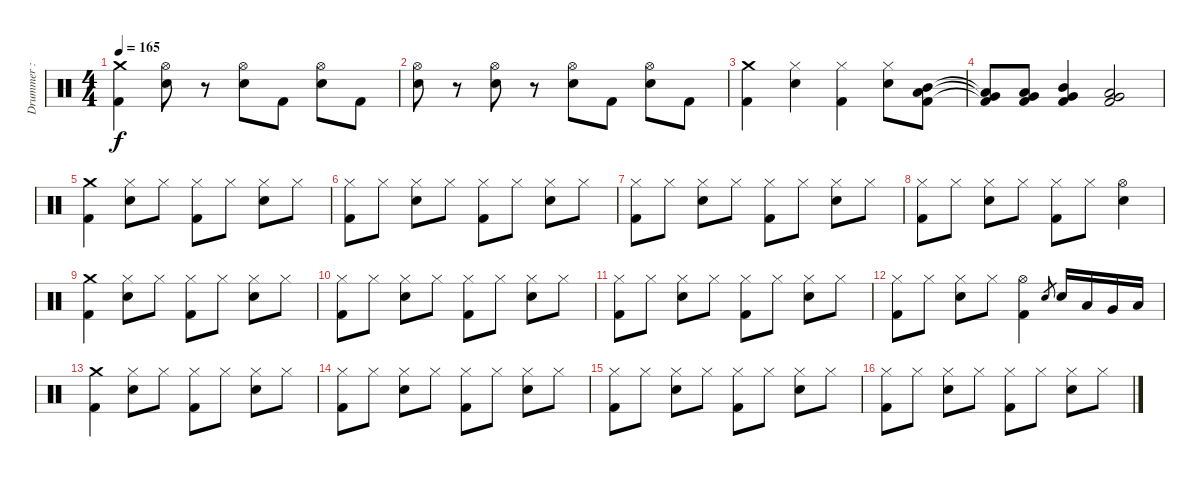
\track ("Drummer : Tainaka Ritsu - Chan" "Drummer : ") {instrument percussion}
\staff {score}
\articulation defaults
\ts (4 4)
\tempo 165
\clef neutral
\ks c
("Crash medium (hit)" "Kick (hit) 2").4{dy f} ("Hi-Hat (open)" "Electric Snare (hit)").8 r.8 ("Hi-Hat (open)" "Electric Snare (hit)").8 "Kick (hit) 2".8 ("Hi-Hat (open)" "Electric Snare (hit)").8 "Kick (hit) 2".8 |
("Hi-Hat (open)" "Electric Snare (hit)").8 r.8 ("Hi-Hat (open)" "Electric Snare (hit)").8 r.8 ("Hi-Hat (open)" "Electric Snare (hit)").8 "Kick (hit) 2".8 ("Hi-Hat (open)" "Electric Snare (hit)").8 "Kick (hit) 2".8 |
("Crash medium (hit)" "Kick (hit) 2").4 ("Hi-Hat (closed)" "Electric Snare (hit)").4 ("Hi-Hat (closed)" "Kick (hit) 2").4 ("Hi-Hat (closed)" "Electric Snare (hit)").8 ("Mid Tom (hit)" "Low Tom (hit)" "Kick (hit) 2").8 |
("Low Tom (hit)"{t} "Very Low Tom (hit)"{t} "Kick (hit) 2"{t}).8 ("Low Tom (hit)" "Very Low Tom (hit)" "Kick (hit) 2").8 ("Mid Tom (hit)" "Very Low Tom (hit)" "Kick (hit) 2").4 ("Very Low Tom (hit)" "Low Floor Tom (hit)" "Kick (hit) 2").2 |
("Crash medium (hit)" "Kick (hit) 2").4 ("Hi-Hat (closed)" "Electric Snare (hit)").8 "Hi-Hat (closed)".8 ("Hi-Hat (closed)" "Kick (hit) 2").8 "Hi-Hat (closed)".8 ("Hi-Hat (closed)" "Electric Snare (hit)").8 "Hi-Hat (closed)".8 |
("Hi-Hat (closed)" "Kick (hit) 2").8 "Hi-Hat (closed)".8 ("Hi-Hat (closed)" "Electric Snare (hit)").8 "Hi-Hat (closed)".8 ("Hi-Hat (closed)" "Kick (hit) 2").8 "Hi-Hat (closed)".8 ("Hi-Hat (closed)" "Electric Snare (hit)").8 "Hi-Hat (closed)".8 |
("Hi-Hat (closed)" "Kick (hit) 2").8 "Hi-Hat (closed)".8 ("Hi-Hat (closed)" "Electric Snare (hit)").8 "Hi-Hat (closed)".8 ("Hi-Hat (closed)" "Kick (hit) 2").8 "Hi-Hat (closed)".8 ("Hi-Hat (closed)" "Electric Snare (hit)").8 "Hi-Hat (closed)".8 |
("Hi-Hat (closed)" "Kick (hit) 2").8 "Hi-Hat (closed)".8 ("Hi-Hat (closed)" "Electric Snare (hit)").8 "Hi-Hat (closed)".8 ("Hi-Hat (closed)" "Kick (hit) 2").8 "Hi-Hat (closed)".8 ("Hi-Hat (open)" "Electric Snare (hit)").4 |
("Crash medium (hit)" "Kick (hit) 2").4 ("Hi-Hat (closed)" "Electric Snare (hit)").8 "Hi-Hat (closed)".8 ("Hi-Hat (closed)" "Kick (hit) 2").8 "Hi-Hat (closed)".8 ("Hi-Hat (closed)" "Electric Snare (hit)").8 "Hi-Hat (closed)".8 |
("Hi-Hat (closed)" "Kick (hit) 2").8 "Hi-Hat (closed)".8 ("Hi-Hat (closed)" "Electric Snare (hit)").8 "Hi-Hat (closed)".8 ("Hi-Hat (closed)" "Kick (hit) 2").8 "Hi-Hat (closed)".8 ("Hi-Hat (closed)" "Electric Snare (hit)").8 "Hi-Hat (closed)".8 |
("Hi-Hat (closed)" "Kick (hit) 2").8 "Hi-Hat (closed)".8 ("Hi-Hat (closed)" "Electric Snare (hit)").8 "Hi-Hat (closed)".8 ("Hi-Hat (closed)" "Kick (hit) 2").8 "Hi-Hat (closed)".8 ("Hi-Hat (closed)" "Electric Snare (hit)").8 "Hi-Hat (closed)".8 |
("Hi-Hat (closed)" "Kick (hit) 2").8 "Hi-Hat (closed)".8 ("Hi-Hat (closed)" "Electric Snare (hit)").8 "Hi-Hat (closed)".8 ("Hi-Hat (open)" "Kick (hit) 2").4 "Electric Snare (hit)".8{gr} "Electric Snare (hit)".16 "Low Tom (hit)".16 "Very Low Tom (hit)".16 "Low Floor Tom (hit)".16 |
("Crash medium (hit)" "Kick (hit) 2").4 ("Hi-Hat (closed)" "Electric Snare (hit)").8 "Hi-Hat (closed)".8 ("Hi-Hat (closed)" "Kick (hit) 2").8 "Hi-Hat (closed)".8 ("Hi-Hat (closed)" "Electric Snare (hit)").8 "Hi-Hat (closed)".8 |
("Hi-Hat (closed)" "Kick (hit) 2").8 "Hi-Hat (closed)".8 ("Hi-Hat (closed)" "Electric Snare (hit)").8 "Hi-Hat (closed)".8 ("Hi-Hat (closed)" "Kick (hit) 2").8 "Hi-Hat (closed)".8 ("Hi-Hat (closed)" "Electric Snare (hit)").8 "Hi-Hat (closed)".8 |
("Hi-Hat (closed)" "Kick (hit) 2").8 "Hi-Hat (closed)".8 ("Hi-Hat (closed)" "Electric Snare (hit)").8 "Hi-Hat (closed)".8 ("Hi-Hat (closed)" "Kick (hit) 2").8 "Hi-Hat (closed)".8 ("Hi-Hat (closed)" "Electric Snare (hit)").8 "Hi-Hat (closed)".8 |
("Hi-Hat (closed)" "Kick (hit) 2").8 "Hi-Hat (closed)".8 ("Hi-Hat (closed)" "Electric Snare (hit)").8 "Hi-Hat (closed)".8 ("Hi-Hat (closed)" "Kick (hit) 2").8 "Hi-Hat (closed)".8 ("Hi-Hat (closed)" "Electric Snare (hit)").8 "Hi-Hat (closed)".8
